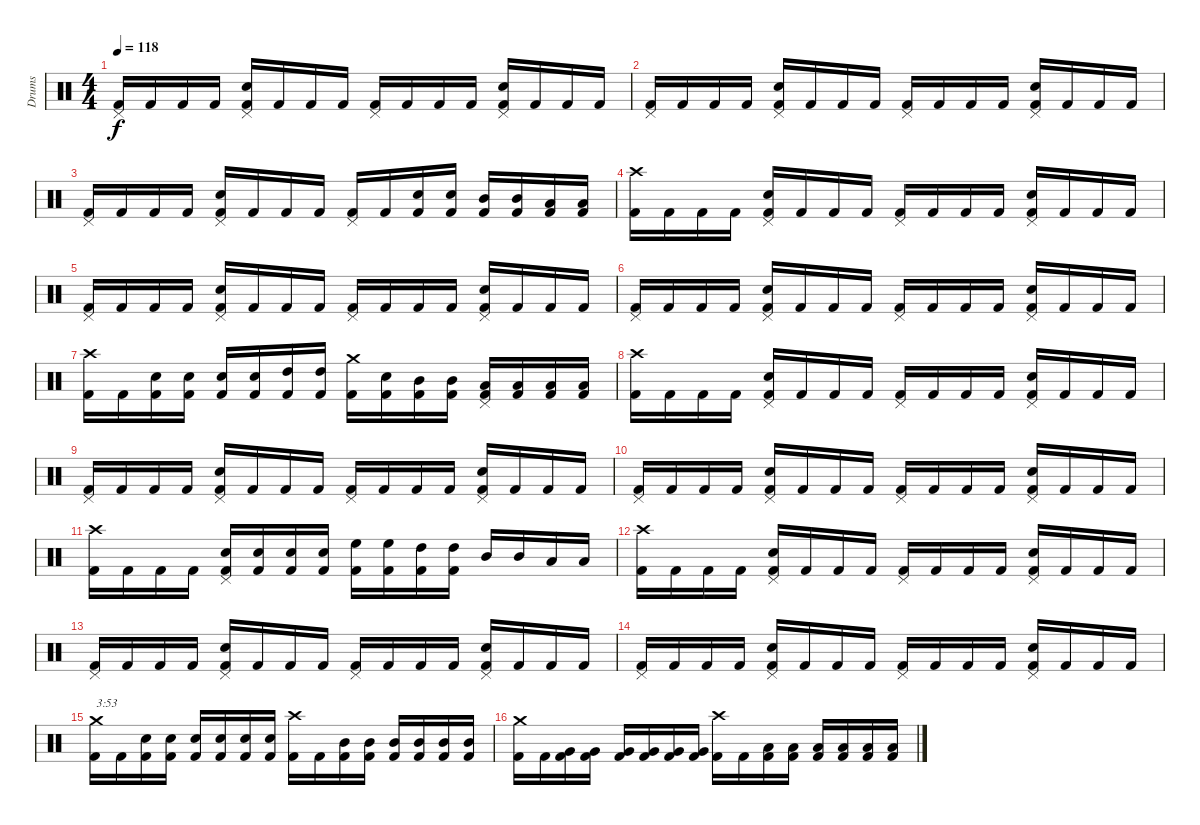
\track ("Drums" "Drums") {instrument percussion}
\staff {score}
\articulation defaults
\ts (4 4)
\tempo 118
\clef neutral
\ks c
("Pedal Hi-Hat (hit)" "Kick (hit) 2").16{dy f} "Kick (hit) 2".16 "Kick (hit) 2".16 "Kick (hit) 2".16 ("Pedal Hi-Hat (hit)" "Electric Snare (hit)" "Kick (hit) 2").16 "Kick (hit) 2".16 "Kick (hit) 2".16 "Kick (hit) 2".16 ("Pedal Hi-Hat (hit)" "Kick (hit) 2").16 "Kick (hit) 2".16 "Kick (hit) 2".16 "Kick (hit) 2".16 ("Pedal Hi-Hat (hit)" "Electric Snare (hit)" "Kick (hit) 2").16 "Kick (hit) 2".16 "Kick (hit) 2".16 "Kick (hit) 2".16 |
("Pedal Hi-Hat (hit)" "Kick (hit) 2").16 "Kick (hit) 2".16 "Kick (hit) 2".16 "Kick (hit) 2".16 ("Pedal Hi-Hat (hit)" "Electric Snare (hit)" "Kick (hit) 2").16 "Kick (hit) 2".16 "Kick (hit) 2".16 "Kick (hit) 2".16 ("Pedal Hi-Hat (hit)" "Kick (hit) 2").16 "Kick (hit) 2".16 "Kick (hit) 2".16 "Kick (hit) 2".16 ("Pedal Hi-Hat (hit)" "Electric Snare (hit)" "Kick (hit) 2").16 "Kick (hit) 2".16 "Kick (hit) 2".16 "Kick (hit) 2".16 |
("Pedal Hi-Hat (hit)" "Kick (hit) 2").16 "Kick (hit) 2".16 "Kick (hit) 2".16 "Kick (hit) 2".16 ("Pedal Hi-Hat (hit)" "Electric Snare (hit)" "Kick (hit) 2").16 "Kick (hit) 2".16 "Kick (hit) 2".16 "Kick (hit) 2".16 ("Pedal Hi-Hat (hit)" "Kick (hit) 2").16 "Kick (hit) 2".16 ("Electric Snare (hit)" "Kick (hit) 2").16 ("Electric Snare (hit)" "Kick (hit) 2").16 ("Mid Tom (hit)" "Kick (hit) 2").16 ("Mid Tom (hit)" "Kick (hit) 2").16 ("Low Tom (hit)" "Kick (hit) 2").16 ("Low Tom (hit)" "Kick (hit) 2").16 |
("Crash high (hit)" "Kick (hit) 2").16 "Kick (hit) 2".16 "Kick (hit) 2".16 "Kick (hit) 2".16 ("Pedal Hi-Hat (hit)" "Electric Snare (hit)" "Kick (hit) 2").16 "Kick (hit) 2".16 "Kick (hit) 2".16 "Kick (hit) 2".16 ("Pedal Hi-Hat (hit)" "Kick (hit) 2").16 "Kick (hit) 2".16 "Kick (hit) 2".16 "Kick (hit) 2".16 ("Pedal Hi-Hat (hit)" "Electric Snare (hit)" "Kick (hit) 2").16 "Kick (hit) 2".16 "Kick (hit) 2".16 "Kick (hit) 2".16 |
("Pedal Hi-Hat (hit)" "Kick (hit) 2").16 "Kick (hit) 2".16 "Kick (hit) 2".16 "Kick (hit) 2".16 ("Pedal Hi-Hat (hit)" "Electric Snare (hit)" "Kick (hit) 2").16 "Kick (hit) 2".16 "Kick (hit) 2".16 "Kick (hit) 2".16 ("Pedal Hi-Hat (hit)" "Kick (hit) 2").16 "Kick (hit) 2".16 "Kick (hit) 2".16 "Kick (hit) 2".16 ("Pedal Hi-Hat (hit)" "Electric Snare (hit)" "Kick (hit) 2").16 "Kick (hit) 2".16 "Kick (hit) 2".16 "Kick (hit) 2".16 |
("Pedal Hi-Hat (hit)" "Kick (hit) 2").16 "Kick (hit) 2".16 "Kick (hit) 2".16 "Kick (hit) 2".16 ("Pedal Hi-Hat (hit)" "Electric Snare (hit)" "Kick (hit) 2").16 "Kick (hit) 2".16 "Kick (hit) 2".16 "Kick (hit) 2".16 ("Pedal Hi-Hat (hit)" "Kick (hit) 2").16 "Kick (hit) 2".16 "Kick (hit) 2".16 "Kick (hit) 2".16 ("Pedal Hi-Hat (hit)" "Electric Snare (hit)" "Kick (hit) 2").16 "Kick (hit) 2".16 "Kick (hit) 2".16 "Kick (hit) 2".16 |
("Crash high (hit)" "Kick (hit) 2").16 "Kick (hit) 2".16 ("Electric Snare (hit)" "Kick (hit) 2").16 ("Electric Snare (hit)" "Kick (hit) 2").16 ("Electric Snare (hit)" "Kick (hit) 2").16 ("Electric Snare (hit)" "Kick (hit) 2").16 ("High Tom (hit)" "Kick (hit) 2").16 ("High Tom (hit)" "Kick (hit) 2").16 ("Crash medium (hit)" "Kick (hit) 2").16 ("Electric Snare (hit)" "Kick (hit) 2").16 ("Mid Tom (hit)" "Kick (hit) 2").16 ("Mid Tom (hit)" "Kick (hit) 2").16 ("Pedal Hi-Hat (hit)" "Low Tom (hit)" "Kick (hit) 2").16 ("Low Tom (hit)" "Kick (hit) 2").16 ("Low Floor Tom (hit)" "Kick (hit) 2").16 ("Low Floor Tom (hit)" "Kick (hit) 2").16 |
("Crash high (hit)" "Kick (hit) 2").16 "Kick (hit) 2".16 "Kick (hit) 2".16 "Kick (hit) 2".16 ("Pedal Hi-Hat (hit)" "Electric Snare (hit)" "Kick (hit) 2").16 "Kick (hit) 2".16 "Kick (hit) 2".16 "Kick (hit) 2".16 ("Pedal Hi-Hat (hit)" "Kick (hit) 2").16 "Kick (hit) 2".16 "Kick (hit) 2".16 "Kick (hit) 2".16 ("Pedal Hi-Hat (hit)" "Electric Snare (hit)" "Kick (hit) 2").16 "Kick (hit) 2".16 "Kick (hit) 2".16 "Kick (hit) 2".16 |
("Pedal Hi-Hat (hit)" "Kick (hit) 2").16 "Kick (hit) 2".16 "Kick (hit) 2".16 "Kick (hit) 2".16 ("Pedal Hi-Hat (hit)" "Electric Snare (hit)" "Kick (hit) 2").16 "Kick (hit) 2".16 "Kick (hit) 2".16 "Kick (hit) 2".16 ("Pedal Hi-Hat (hit)" "Kick (hit) 2").16 "Kick (hit) 2".16 "Kick (hit) 2".16 "Kick (hit) 2".16 ("Pedal Hi-Hat (hit)" "Electric Snare (hit)" "Kick (hit) 2").16 "Kick (hit) 2".16 "Kick (hit) 2".16 "Kick (hit) 2".16 |
("Pedal Hi-Hat (hit)" "Kick (hit) 2").16 "Kick (hit) 2".16 "Kick (hit) 2".16 "Kick (hit) 2".16 ("Pedal Hi-Hat (hit)" "Electric Snare (hit)" "Kick (hit) 2").16 "Kick (hit) 2".16 "Kick (hit) 2".16 "Kick (hit) 2".16 ("Pedal Hi-Hat (hit)" "Kick (hit) 2").16 "Kick (hit) 2".16 "Kick (hit) 2".16 "Kick (hit) 2".16 ("Pedal Hi-Hat (hit)" "Electric Snare (hit)" "Kick (hit) 2").16 "Kick (hit) 2".16 "Kick (hit) 2".16 "Kick (hit) 2".16 |
("Crash high (hit)" "Kick (hit) 2").16 "Kick (hit) 2".16 "Kick (hit) 2".16 "Kick (hit) 2".16 ("Pedal Hi-Hat (hit)" "Electric Snare (hit)" "Kick (hit) 2").16 ("Electric Snare (hit)" "Kick (hit) 2").16 ("Electric Snare (hit)" "Kick (hit) 2").16 ("Electric Snare (hit)" "Kick (hit) 2").16 ("High Floor Tom (hit)" "Kick (hit) 2").16 ("High Floor Tom (hit)" "Kick (hit) 2").16 ("High Tom (hit)" "Kick (hit) 2").16 ("High Tom (hit)" "Kick (hit) 2").16 "Mid Tom (hit)".16 "Mid Tom (hit)".16 "Low Tom (hit)".16 "Low Floor Tom (hit)".16 |
("Crash high (hit)" "Kick (hit) 2").16 "Kick (hit) 2".16 "Kick (hit) 2".16 "Kick (hit) 2".16 ("Pedal Hi-Hat (hit)" "Electric Snare (hit)" "Kick (hit) 2").16 "Kick (hit) 2".16 "Kick (hit) 2".16 "Kick (hit) 2".16 ("Pedal Hi-Hat (hit)" "Kick (hit) 2").16 "Kick (hit) 2".16 "Kick (hit) 2".16 "Kick (hit) 2".16 ("Pedal Hi-Hat (hit)" "Electric Snare (hit)" "Kick (hit) 2").16 "Kick (hit) 2".16 "Kick (hit) 2".16 "Kick (hit) 2".16 |
("Pedal Hi-Hat (hit)" "Kick (hit) 2").16 "Kick (hit) 2".16 "Kick (hit) 2".16 "Kick (hit) 2".16 ("Pedal Hi-Hat (hit)" "Electric Snare (hit)" "Kick (hit) 2").16 "Kick (hit) 2".16 "Kick (hit) 2".16 "Kick (hit) 2".16 ("Pedal Hi-Hat (hit)" "Kick (hit) 2").16 "Kick (hit) 2".16 "Kick (hit) 2".16 "Kick (hit) 2".16 ("Pedal Hi-Hat (hit)" "Electric Snare (hit)" "Kick (hit) 2").16 "Kick (hit) 2".16 "Kick (hit) 2".16 "Kick (hit) 2".16 |
("Pedal Hi-Hat (hit)" "Kick (hit) 2").16 "Kick (hit) 2".16 "Kick (hit) 2".16 "Kick (hit) 2".16 ("Pedal Hi-Hat (hit)" "Electric Snare (hit)" "Kick (hit) 2").16 "Kick (hit) 2".16 "Kick (hit) 2".16 "Kick (hit) 2".16 ("Pedal Hi-Hat (hit)" "Kick (hit) 2").16 "Kick (hit) 2".16 "Kick (hit) 2".16 "Kick (hit) 2".16 ("Pedal Hi-Hat (hit)" "Electric Snare (hit)" "Kick (hit) 2").16 "Kick (hit) 2".16 "Kick (hit) 2".16 "Kick (hit) 2".16 |
("Crash medium (hit)" "Kick (hit) 2").16{txt "3:53"} "Kick (hit) 2".16 ("Electric Snare (hit)" "Kick (hit) 2").16 ("Electric Snare (hit)" "Kick (hit) 2").16 ("Electric Snare (hit)" "Kick (hit) 2").16 ("Electric Snare (hit)" "Kick (hit) 2").16 ("Electric Snare (hit)" "Kick (hit) 2").16 ("Electric Snare (hit)" "Kick (hit) 2").16 ("Crash high (hit)" "Kick (hit) 2").16 "Kick (hit) 2".16 ("Mid Tom (hit)" "Kick (hit) 2").16 ("Mid Tom (hit)" "Kick (hit) 2").16 ("Mid Tom (hit)" "Kick (hit) 2").16 ("Mid Tom (hit)" "Kick (hit) 2").16 ("Mid Tom (hit)" "Kick (hit) 2").16 ("Mid Tom (hit)" "Kick (hit) 2").16 |
("Crash medium (hit)" "Kick (hit) 2").16 "Kick (hit) 2".16 ("Very Low Tom (hit)" "Kick (hit) 2").16 ("Very Low Tom (hit)" "Kick (hit) 2").16 ("Very Low Tom (hit)" "Kick (hit) 2").16 ("Very Low Tom (hit)" "Kick (hit) 2").16 ("Very Low Tom (hit)" "Kick (hit) 2").16 ("Very Low Tom (hit)" "Kick (hit) 2").16 ("Crash high (hit)" "Kick (hit) 2").16 "Kick (hit) 2".16 ("Low Floor Tom (hit)" "Kick (hit) 2").16 ("Low Floor Tom (hit)" "Kick (hit) 2").16 ("Low Floor Tom (hit)" "Kick (hit) 2").16 ("Low Floor Tom (hit)" "Kick (hit) 2").16 ("Low Floor Tom (hit)" "Kick (hit) 2").16 ("Low Floor Tom (hit)" "Kick (hit) 2").16
